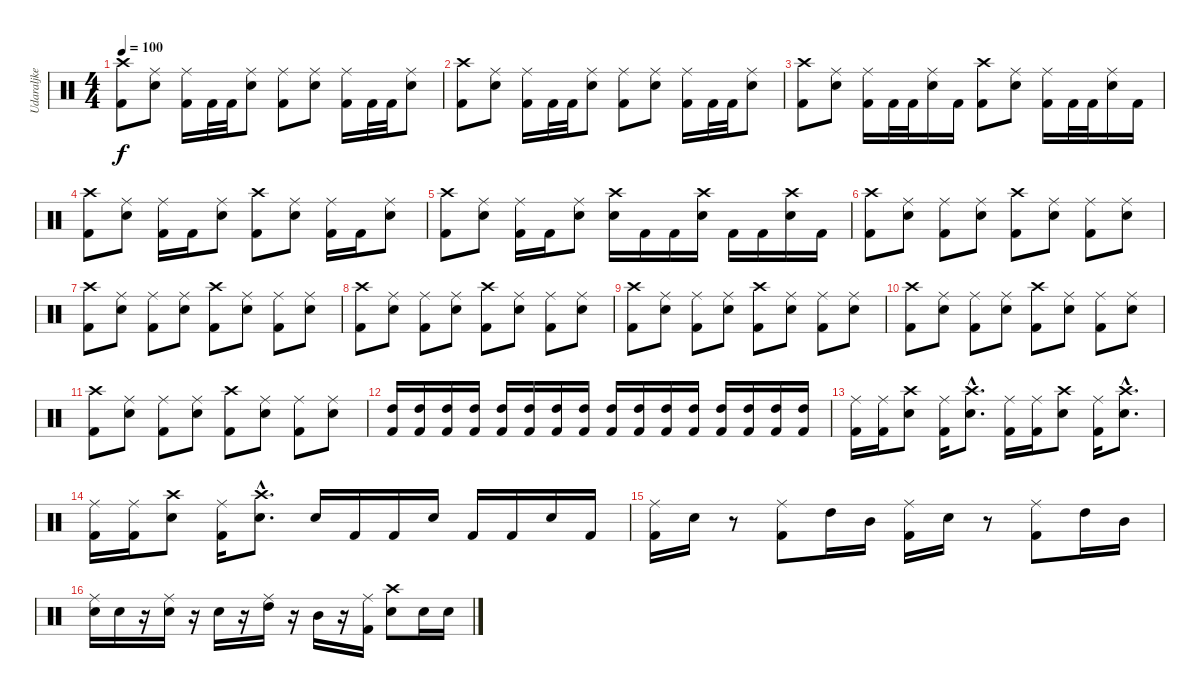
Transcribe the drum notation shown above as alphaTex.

\track ("Udaraljke" "Udaraljke") {instrument percussion}
\staff {score}
\articulation defaults
\ts (4 4)
\tempo 100
\clef neutral
\ks c
("Kick (hit) 2" "Crash high (hit)").8{dy f} ("Snare (hit) 2" "Ride (middle)").8 ("Kick (hit) 2" "Ride (middle)").16 "Kick (hit) 2".32 "Kick (hit) 2".32 ("Snare (hit) 2" "Ride (middle)").8 ("Kick (hit) 2" "Ride (middle)").8 ("Snare (hit) 2" "Ride (middle)").8 ("Kick (hit) 2" "Ride (middle)").16 "Kick (hit) 2".32 "Kick (hit) 2".32 ("Snare (hit) 2" "Ride (middle)").8 |
("Kick (hit) 2" "Crash high (hit)").8 ("Snare (hit) 2" "Ride (middle)").8 ("Kick (hit) 2" "Ride (middle)").16 "Kick (hit) 2".32 "Kick (hit) 2".32 ("Snare (hit) 2" "Ride (middle)").8 ("Kick (hit) 2" "Ride (middle)").8 ("Snare (hit) 2" "Ride (middle)").8 ("Kick (hit) 2" "Ride (middle)").16 "Kick (hit) 2".32 "Kick (hit) 2".32 ("Snare (hit) 2" "Ride (middle)").8 |
("Kick (hit) 2" "Crash high (hit)").8 ("Snare (hit) 2" "Ride (middle)").8 ("Kick (hit) 2" "Ride (middle)").16 "Kick (hit) 2".32 "Kick (hit) 2".32 ("Snare (hit) 2" "Ride (middle)").16 "Kick (hit) 2".16 ("Kick (hit) 2" "Crash high (hit)").8 ("Snare (hit) 2" "Ride (middle)").8 ("Kick (hit) 2" "Ride (middle)").16 "Kick (hit) 2".32 "Kick (hit) 2".32 ("Snare (hit) 2" "Ride (middle)").16 "Kick (hit) 2".16 |
("Kick (hit) 2" "Crash high (hit)").8 ("Snare (hit) 2" "Ride (middle)").8 ("Kick (hit) 2" "Ride (middle)").16 "Kick (hit) 2".16 ("Snare (hit) 2" "Ride (middle)").8 ("Kick (hit) 2" "Crash high (hit)").8 ("Snare (hit) 2" "Ride (middle)").8 ("Kick (hit) 2" "Ride (middle)").16 "Kick (hit) 2".16 ("Snare (hit) 2" "Ride (middle)").8 |
("Kick (hit) 2" "Crash high (hit)").8 ("Snare (hit) 2" "Ride (middle)").8 ("Kick (hit) 2" "Ride (middle)").16 "Kick (hit) 2".16 ("Snare (hit) 2" "Ride (middle)").8 ("Snare (hit) 2" "Crash high (hit)").16 "Kick (hit) 2".16 "Kick (hit) 2".16 ("Snare (hit) 2" "Crash high (hit)").16 "Kick (hit) 2".16 "Kick (hit) 2".16 ("Snare (hit) 2" "Crash high (hit)").16 "Kick (hit) 2".16 |
("Kick (hit) 2" "Crash high (hit)").8 ("Snare (hit) 2" "Ride (middle)").8 ("Kick (hit) 2" "Ride (middle)").8 ("Snare (hit) 2" "Ride (middle)").8 ("Kick (hit) 2" "Crash high (hit)").8 ("Snare (hit) 2" "Ride (middle)").8 ("Kick (hit) 2" "Ride (middle)").8 ("Snare (hit) 2" "Ride (middle)").8 |
("Kick (hit) 2" "Crash high (hit)").8 ("Snare (hit) 2" "Ride (middle)").8 ("Kick (hit) 2" "Ride (middle)").8 ("Snare (hit) 2" "Ride (middle)").8 ("Kick (hit) 2" "Crash high (hit)").8 ("Snare (hit) 2" "Ride (middle)").8 ("Kick (hit) 2" "Ride (middle)").8 ("Snare (hit) 2" "Ride (middle)").8 |
("Kick (hit) 2" "Crash high (hit)").8 ("Snare (hit) 2" "Ride (middle)").8 ("Kick (hit) 2" "Ride (middle)").8 ("Snare (hit) 2" "Ride (middle)").8 ("Kick (hit) 2" "Crash high (hit)").8 ("Snare (hit) 2" "Ride (middle)").8 ("Kick (hit) 2" "Ride (middle)").8 ("Snare (hit) 2" "Ride (middle)").8 |
("Kick (hit) 2" "Crash high (hit)").8 ("Snare (hit) 2" "Ride (middle)").8 ("Kick (hit) 2" "Ride (middle)").8 ("Snare (hit) 2" "Ride (middle)").8 ("Kick (hit) 2" "Crash high (hit)").8 ("Snare (hit) 2" "Ride (middle)").8 ("Kick (hit) 2" "Ride (middle)").8 ("Snare (hit) 2" "Ride (middle)").8 |
("Kick (hit) 2" "Crash high (hit)").8 ("Snare (hit) 2" "Ride (middle)").8 ("Kick (hit) 2" "Ride (middle)").8 ("Snare (hit) 2" "Ride (middle)").8 ("Kick (hit) 2" "Crash high (hit)").8 ("Snare (hit) 2" "Ride (middle)").8 ("Kick (hit) 2" "Ride (middle)").8 ("Snare (hit) 2" "Ride (middle)").8 |
("Kick (hit) 2" "Crash high (hit)").8 ("Snare (hit) 2" "Ride (middle)").8 ("Kick (hit) 2" "Ride (middle)").8 ("Snare (hit) 2" "Ride (middle)").8 ("Kick (hit) 2" "Crash high (hit)").8 ("Snare (hit) 2" "Ride (middle)").8 ("Kick (hit) 2" "Ride (middle)").8 ("Snare (hit) 2" "Ride (middle)").8 |
("Kick (hit) 2" "High Tom (hit)").16 ("Kick (hit) 2" "High Tom (hit)").16 ("Kick (hit) 2" "High Tom (hit)").16 ("Kick (hit) 2" "High Tom (hit)").16 ("Kick (hit) 2" "High Tom (hit)").16 ("Kick (hit) 2" "High Tom (hit)").16 ("Kick (hit) 2" "High Tom (hit)").16 ("Kick (hit) 2" "High Tom (hit)").16 ("Kick (hit) 2" "High Tom (hit)").16 ("Kick (hit) 2" "High Tom (hit)").16 ("Kick (hit) 2" "High Tom (hit)").16 ("Kick (hit) 2" "High Tom (hit)").16 ("Kick (hit) 2" "High Tom (hit)").16 ("Kick (hit) 2" "High Tom (hit)").16 ("Kick (hit) 2" "High Tom (hit)").16 ("Kick (hit) 2" "High Tom (hit)").16 |
("Kick (hit) 2" "Ride (middle)").16 ("Kick (hit) 2" "Ride (middle)").16 ("Snare (hit) 2" "Crash high (hit)").8 ("Kick (hit) 2" "Ride (middle)").16 ("Snare (hit) 2"{hac} "Crash high (hit)"{hac}).8{d} ("Kick (hit) 2" "Ride (middle)").16 ("Kick (hit) 2" "Ride (middle)").16 ("Snare (hit) 2" "Crash high (hit)").8 ("Kick (hit) 2" "Ride (middle)").16 ("Snare (hit) 2"{hac} "Crash high (hit)"{hac}).8{d} |
("Kick (hit) 2" "Ride (middle)").16 ("Kick (hit) 2" "Ride (middle)").16 ("Snare (hit) 2" "Crash high (hit)").8 ("Kick (hit) 2" "Ride (middle)").16 ("Snare (hit) 2"{hac} "Crash high (hit)"{hac}).8{d} "Snare (hit) 2".16 "Kick (hit) 2".16 "Kick (hit) 2".16 "Snare (hit) 2".16 "Kick (hit) 2".16 "Kick (hit) 2".16 "Snare (hit) 2".16 "Kick (hit) 2".16 |
("Kick (hit) 2" "Ride (middle)").16 "Snare (hit) 2".16 r.8 ("Kick (hit) 2" "Ride (middle)").8 "High Tom (hit)".16 "Mid Tom (hit)".16 ("Kick (hit) 2" "Ride (middle)").16 "Snare (hit) 2".16 r.8 ("Kick (hit) 2" "Ride (middle)").8 "High Tom (hit)".16 "Mid Tom (hit)".16 |
("Snare (hit) 2" "Ride (middle)").16 "Snare (hit) 2".16 r.16 ("Snare (hit) 2" "Ride (middle)").16 r.16 "Snare (hit) 2".16 r.16 ("High Tom (hit)" "Ride (middle)").16 r.16 "Mid Tom (hit)".16 r.16 ("Kick (hit) 2" "Ride (middle)").16 ("Snare (hit) 2" "Crash high (hit)").8 "Snare (hit) 2".16 "Snare (hit) 2".16
